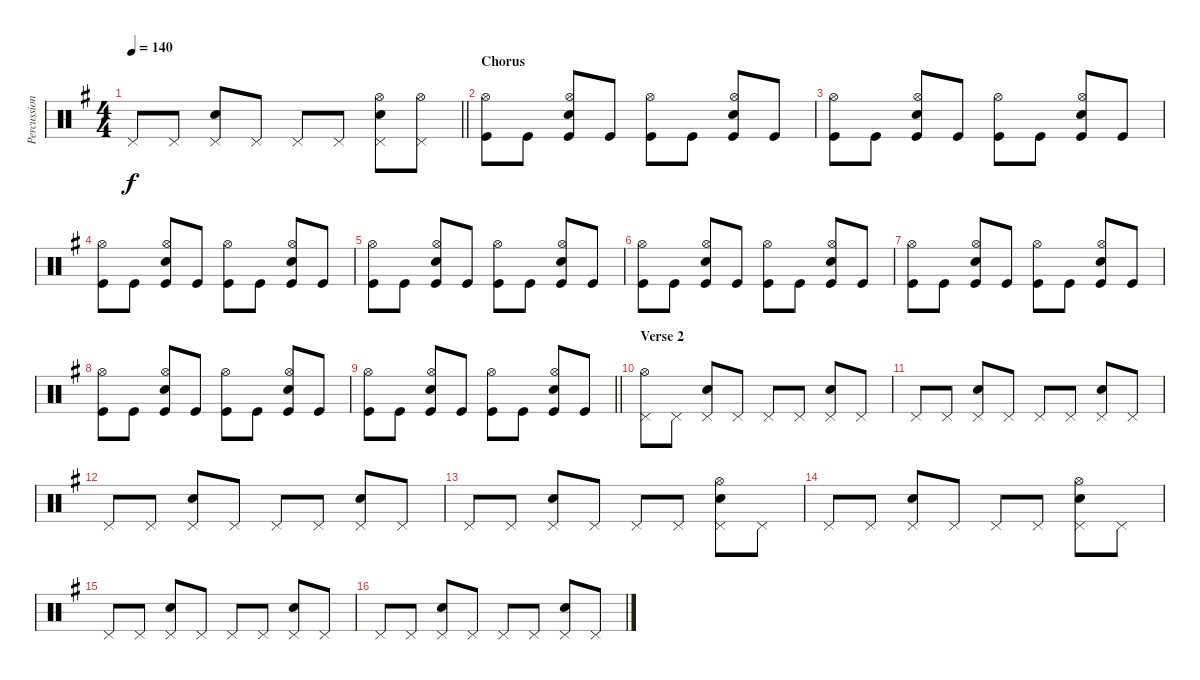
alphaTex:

\track ("Percussion" "Percussion") {instrument percussion}
\staff {score}
\articulation defaults
\ts (4 4)
\tempo 140
\clef neutral
\barLineRight lightlight
\ks g "Pedal Hi-Hat (hit)".8{dy f} "Pedal Hi-Hat (hit)".8
("Pedal Hi-Hat (hit)" "Snare (hit) 2").8 "Pedal Hi-Hat (hit)".8 "Pedal Hi-Hat (hit)".8 "Pedal Hi-Hat (hit)".8 ("Pedal Hi-Hat (hit)" "Hi-Hat (open)" "Snare (hit) 2").8 ("Pedal Hi-Hat (hit)" "Hi-Hat (open)").8 |
\section ("" "Chorus")
("Hi-Hat (open)" "Kick (hit)").8 "Kick (hit)".8 ("Hi-Hat (open)" "Snare (hit) 2" "Kick (hit)").8 "Kick (hit)".8 ("Hi-Hat (open)" "Kick (hit)").8 "Kick (hit)".8 ("Hi-Hat (open)" "Snare (hit) 2" "Kick (hit)").8 "Kick (hit)".8 |
("Hi-Hat (open)" "Kick (hit)").8 "Kick (hit)".8 ("Hi-Hat (open)" "Snare (hit) 2" "Kick (hit)").8 "Kick (hit)".8 ("Hi-Hat (open)" "Kick (hit)").8 "Kick (hit)".8 ("Hi-Hat (open)" "Snare (hit) 2" "Kick (hit)").8 "Kick (hit)".8 |
("Hi-Hat (open)" "Kick (hit)").8 "Kick (hit)".8 ("Hi-Hat (open)" "Snare (hit) 2" "Kick (hit)").8 "Kick (hit)".8 ("Hi-Hat (open)" "Kick (hit)").8 "Kick (hit)".8 ("Hi-Hat (open)" "Snare (hit) 2" "Kick (hit)").8 "Kick (hit)".8 |
("Hi-Hat (open)" "Kick (hit)").8 "Kick (hit)".8 ("Hi-Hat (open)" "Snare (hit) 2" "Kick (hit)").8 "Kick (hit)".8 ("Hi-Hat (open)" "Kick (hit)").8 "Kick (hit)".8 ("Hi-Hat (open)" "Snare (hit) 2" "Kick (hit)").8 "Kick (hit)".8 |
("Hi-Hat (open)" "Kick (hit)").8 "Kick (hit)".8 ("Hi-Hat (open)" "Snare (hit) 2" "Kick (hit)").8 "Kick (hit)".8 ("Hi-Hat (open)" "Kick (hit)").8 "Kick (hit)".8 ("Hi-Hat (open)" "Snare (hit) 2" "Kick (hit)").8 "Kick (hit)".8 |
("Hi-Hat (open)" "Kick (hit)").8 "Kick (hit)".8 ("Hi-Hat (open)" "Snare (hit) 2" "Kick (hit)").8 "Kick (hit)".8 ("Hi-Hat (open)" "Kick (hit)").8 "Kick (hit)".8 ("Hi-Hat (open)" "Snare (hit) 2" "Kick (hit)").8 "Kick (hit)".8 |
("Hi-Hat (open)" "Kick (hit)").8 "Kick (hit)".8 ("Hi-Hat (open)" "Snare (hit) 2" "Kick (hit)").8 "Kick (hit)".8 ("Hi-Hat (open)" "Kick (hit)").8 "Kick (hit)".8 ("Hi-Hat (open)" "Snare (hit) 2" "Kick (hit)").8 "Kick (hit)".8 |
\barLineRight lightlight
("Hi-Hat (open)" "Kick (hit)").8 "Kick (hit)".8 ("Hi-Hat (open)" "Snare (hit) 2" "Kick (hit)").8 "Kick (hit)".8 ("Hi-Hat (open)" "Kick (hit)").8 "Kick (hit)".8 ("Hi-Hat (open)" "Snare (hit) 2" "Kick (hit)").8 "Kick (hit)".8 |
\section ("" "Verse 2")
("Pedal Hi-Hat (hit)" "Hi-Hat (open)").8 "Pedal Hi-Hat (hit)".8 ("Pedal Hi-Hat (hit)" "Snare (hit) 2").8 "Pedal Hi-Hat (hit)".8 "Pedal Hi-Hat (hit)".8 "Pedal Hi-Hat (hit)".8 ("Pedal Hi-Hat (hit)" "Snare (hit) 2").8 "Pedal Hi-Hat (hit)".8 |
"Pedal Hi-Hat (hit)".8 "Pedal Hi-Hat (hit)".8 ("Pedal Hi-Hat (hit)" "Snare (hit) 2").8 "Pedal Hi-Hat (hit)".8 "Pedal Hi-Hat (hit)".8 "Pedal Hi-Hat (hit)".8 ("Pedal Hi-Hat (hit)" "Snare (hit) 2").8 "Pedal Hi-Hat (hit)".8 |
"Pedal Hi-Hat (hit)".8 "Pedal Hi-Hat (hit)".8 ("Pedal Hi-Hat (hit)" "Snare (hit) 2").8 "Pedal Hi-Hat (hit)".8 "Pedal Hi-Hat (hit)".8 "Pedal Hi-Hat (hit)".8 ("Pedal Hi-Hat (hit)" "Snare (hit) 2").8 "Pedal Hi-Hat (hit)".8 |
"Pedal Hi-Hat (hit)".8 "Pedal Hi-Hat (hit)".8 ("Pedal Hi-Hat (hit)" "Snare (hit) 2").8 "Pedal Hi-Hat (hit)".8 "Pedal Hi-Hat (hit)".8 "Pedal Hi-Hat (hit)".8 ("Pedal Hi-Hat (hit)" "Hi-Hat (open)" "Snare (hit) 2").8 "Pedal Hi-Hat (hit)".8 |
"Pedal Hi-Hat (hit)".8 "Pedal Hi-Hat (hit)".8 ("Pedal Hi-Hat (hit)" "Snare (hit) 2").8 "Pedal Hi-Hat (hit)".8 "Pedal Hi-Hat (hit)".8 "Pedal Hi-Hat (hit)".8 ("Pedal Hi-Hat (hit)" "Hi-Hat (open)" "Snare (hit) 2").8 "Pedal Hi-Hat (hit)".8 |
"Pedal Hi-Hat (hit)".8 "Pedal Hi-Hat (hit)".8 ("Pedal Hi-Hat (hit)" "Snare (hit) 2").8 "Pedal Hi-Hat (hit)".8 "Pedal Hi-Hat (hit)".8 "Pedal Hi-Hat (hit)".8 ("Pedal Hi-Hat (hit)" "Snare (hit) 2").8 "Pedal Hi-Hat (hit)".8 |
"Pedal Hi-Hat (hit)".8 "Pedal Hi-Hat (hit)".8 ("Pedal Hi-Hat (hit)" "Snare (hit) 2").8 "Pedal Hi-Hat (hit)".8 "Pedal Hi-Hat (hit)".8 "Pedal Hi-Hat (hit)".8 ("Pedal Hi-Hat (hit)" "Snare (hit) 2").8 "Pedal Hi-Hat (hit)".8
